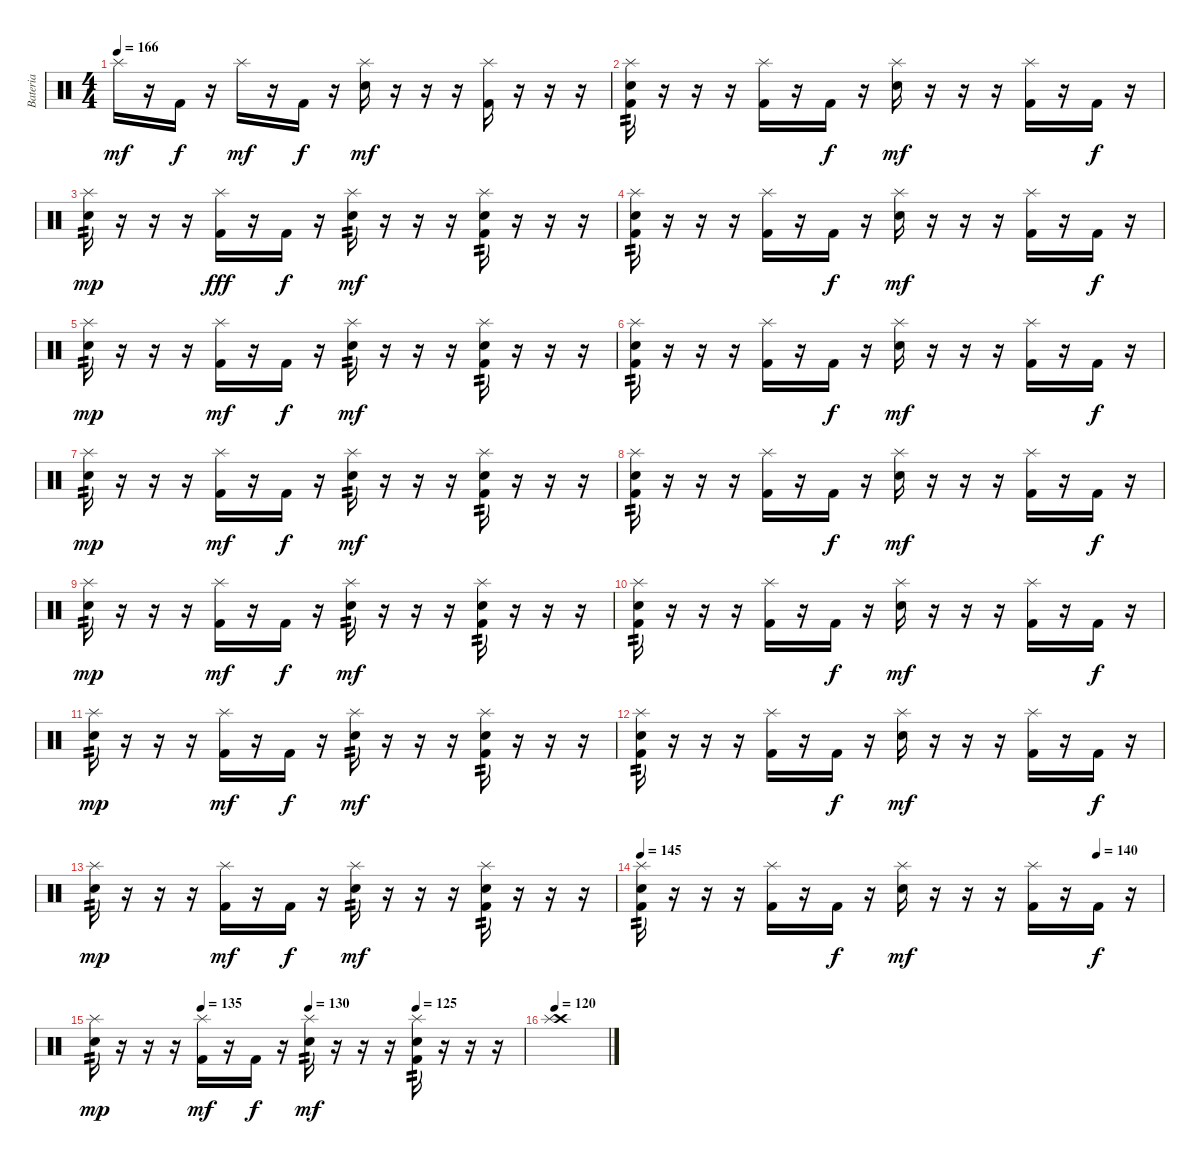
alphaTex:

\track ("Bateria" "Bateria") {instrument percussion}
\staff {score}
\articulation defaults
\ts (4 4)
\tempo 166
\clef neutral
\ks c "Splash (hit)".16{dy mf}
r.16 "Kick (hit) 2".16{dy f} r.16 "Splash (hit)".16{dy mf} r.16 "Kick (hit) 2".16{dy f} r.16 ("Splash (hit)" "Electric Snare (hit)").16{dy mf} r.16 r.16 r.16 ("Splash (hit)" "Kick (hit) 2").16 r.16 r.16 r.16 |
("Splash (hit)" "Kick (hit) 2" "Electric Snare (hit)").16{tp 2} r.16 r.16 r.16 ("Splash (hit)" "Kick (hit) 2").16 r.16 "Kick (hit) 2".16{dy f} r.16 ("Splash (hit)" "Electric Snare (hit)").16{dy mf} r.16 r.16 r.16 ("Splash (hit)" "Kick (hit) 2").16 r.16 "Kick (hit) 2".16{dy f} r.16 |
("Splash (hit)" "Electric Snare (hit)").16{tp 2 dy mp} r.16 r.16 r.16 ("Splash (hit)" "Kick (hit) 2").16{dy fff} r.16 "Kick (hit) 2".16{dy f} r.16 ("Splash (hit)" "Electric Snare (hit)").16{tp 2 dy mf} r.16 r.16 r.16 ("Splash (hit)" "Kick (hit) 2" "Electric Snare (hit)").16{tp 2} r.16 r.16 r.16 |
("Splash (hit)" "Kick (hit) 2" "Electric Snare (hit)").16{tp 2} r.16 r.16 r.16 ("Splash (hit)" "Kick (hit) 2").16 r.16 "Kick (hit) 2".16{dy f} r.16 ("Splash (hit)" "Electric Snare (hit)").16{dy mf} r.16 r.16 r.16 ("Splash (hit)" "Kick (hit) 2").16 r.16 "Kick (hit) 2".16{dy f} r.16 |
("Splash (hit)" "Electric Snare (hit)").16{tp 2 dy mp} r.16 r.16 r.16 ("Splash (hit)" "Kick (hit) 2").16{dy mf} r.16 "Kick (hit) 2".16{dy f} r.16 ("Splash (hit)" "Electric Snare (hit)").16{tp 2 dy mf} r.16 r.16 r.16 ("Splash (hit)" "Kick (hit) 2" "Electric Snare (hit)").16{tp 2} r.16 r.16 r.16 |
("Splash (hit)" "Kick (hit) 2" "Electric Snare (hit)").16{tp 2} r.16 r.16 r.16 ("Splash (hit)" "Kick (hit) 2").16 r.16 "Kick (hit) 2".16{dy f} r.16 ("Splash (hit)" "Electric Snare (hit)").16{dy mf} r.16 r.16 r.16 ("Splash (hit)" "Kick (hit) 2").16 r.16 "Kick (hit) 2".16{dy f} r.16 |
("Splash (hit)" "Electric Snare (hit)").16{tp 2 dy mp} r.16 r.16 r.16 ("Splash (hit)" "Kick (hit) 2").16{dy mf} r.16 "Kick (hit) 2".16{dy f} r.16 ("Splash (hit)" "Electric Snare (hit)").16{tp 2 dy mf} r.16 r.16 r.16 ("Splash (hit)" "Kick (hit) 2" "Electric Snare (hit)").16{tp 2} r.16 r.16 r.16 |
("Splash (hit)" "Kick (hit) 2" "Electric Snare (hit)").16{tp 2} r.16 r.16 r.16 ("Splash (hit)" "Kick (hit) 2").16 r.16 "Kick (hit) 2".16{dy f} r.16 ("Splash (hit)" "Electric Snare (hit)").16{dy mf} r.16 r.16 r.16 ("Splash (hit)" "Kick (hit) 2").16 r.16 "Kick (hit) 2".16{dy f} r.16 |
("Splash (hit)" "Electric Snare (hit)").16{tp 2 dy mp} r.16 r.16 r.16 ("Splash (hit)" "Kick (hit) 2").16{dy mf} r.16 "Kick (hit) 2".16{dy f} r.16 ("Splash (hit)" "Electric Snare (hit)").16{tp 2 dy mf} r.16 r.16 r.16 ("Splash (hit)" "Kick (hit) 2" "Electric Snare (hit)").16{tp 2} r.16 r.16 r.16 |
("Splash (hit)" "Kick (hit) 2" "Electric Snare (hit)").16{tp 2} r.16 r.16 r.16 ("Splash (hit)" "Kick (hit) 2").16 r.16 "Kick (hit) 2".16{dy f} r.16 ("Splash (hit)" "Electric Snare (hit)").16{dy mf} r.16 r.16 r.16 ("Splash (hit)" "Kick (hit) 2").16 r.16 "Kick (hit) 2".16{dy f} r.16 |
("Splash (hit)" "Electric Snare (hit)").16{tp 2 dy mp} r.16 r.16 r.16 ("Splash (hit)" "Kick (hit) 2").16{dy mf} r.16 "Kick (hit) 2".16{dy f} r.16 ("Splash (hit)" "Electric Snare (hit)").16{tp 2 dy mf} r.16 r.16 r.16 ("Splash (hit)" "Kick (hit) 2" "Electric Snare (hit)").16{tp 2} r.16 r.16 r.16 |
("Splash (hit)" "Kick (hit) 2" "Electric Snare (hit)").16{tp 2} r.16 r.16 r.16 ("Splash (hit)" "Kick (hit) 2").16 r.16 "Kick (hit) 2".16{dy f} r.16 ("Splash (hit)" "Electric Snare (hit)").16{dy mf} r.16 r.16 r.16 ("Splash (hit)" "Kick (hit) 2").16 r.16 "Kick (hit) 2".16{dy f} r.16 |
("Splash (hit)" "Electric Snare (hit)").16{tp 2 dy mp} r.16 r.16 r.16 ("Splash (hit)" "Kick (hit) 2").16{dy mf} r.16 "Kick (hit) 2".16{dy f} r.16 ("Splash (hit)" "Electric Snare (hit)").16{tp 2 dy mf} r.16 r.16 r.16 ("Splash (hit)" "Kick (hit) 2" "Electric Snare (hit)").16{tp 2} r.16 r.16 r.16 |
\tempo 145
\tempo (140 0.875)
("Splash (hit)" "Kick (hit) 2" "Electric Snare (hit)").16{tp 2} r.16 r.16 r.16 ("Splash (hit)" "Kick (hit) 2").16 r.16 "Kick (hit) 2".16{dy f} r.16 ("Splash (hit)" "Electric Snare (hit)").16{dy mf} r.16 r.16 r.16 ("Splash (hit)" "Kick (hit) 2").16 r.16 "Kick (hit) 2".16{dy f} r.16 |
\tempo (135 0.25)
\tempo (130 0.5)
\tempo (125 0.75)
("Splash (hit)" "Electric Snare (hit)").16{tp 2 dy mp} r.16 r.16 r.16 ("Splash (hit)" "Kick (hit) 2").16{dy mf} r.16 "Kick (hit) 2".16{dy f} r.16 ("Splash (hit)" "Electric Snare (hit)").16{tp 2 dy mf} r.16 r.16 r.16 ("Splash (hit)" "Kick (hit) 2" "Electric Snare (hit)").16{tp 2} r.16 r.16 r.16 |
\tempo 120
("Crash high (hit)" "Splash (hit)").1
